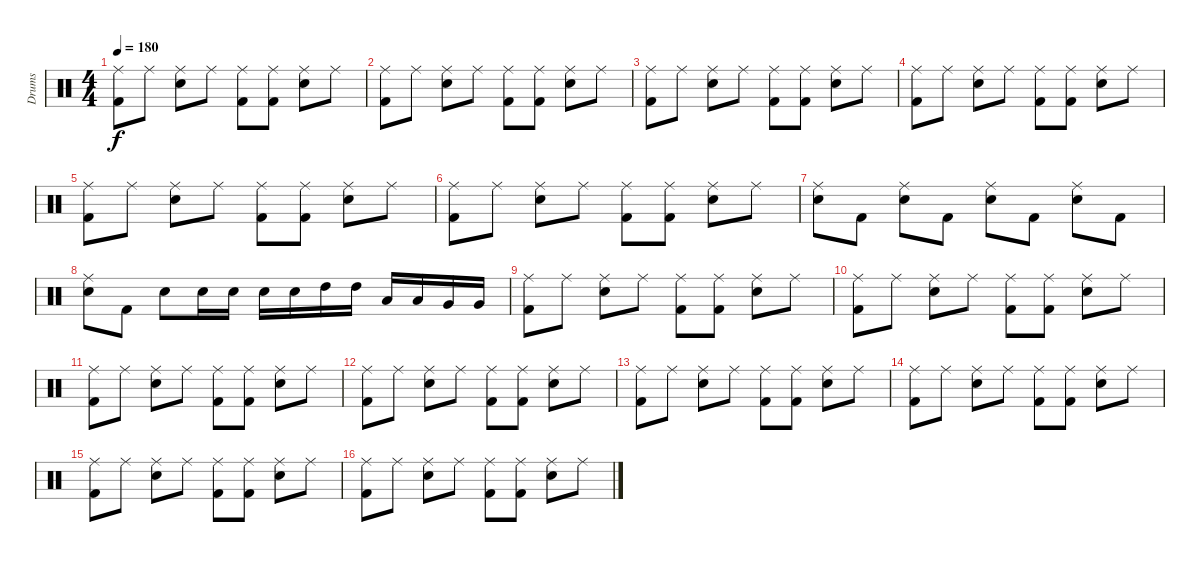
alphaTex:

\track ("Drums" "Drums") {instrument percussion}
\staff {score}
\articulation defaults
\ts (4 4)
\tempo 180
\clef neutral
\ks c
("Ride (middle)" "Kick (hit) 2").8{dy f} "Ride (middle)".8 ("Ride (middle)" "Electric Snare (hit)").8 "Ride (middle)".8 ("Ride (middle)" "Kick (hit) 2").8 ("Ride (middle)" "Kick (hit) 2").8 ("Ride (middle)" "Electric Snare (hit)").8 "Ride (middle)".8 |
("Ride (middle)" "Kick (hit) 2").8 "Ride (middle)".8 ("Ride (middle)" "Electric Snare (hit)").8 "Ride (middle)".8 ("Ride (middle)" "Kick (hit) 2").8 ("Ride (middle)" "Kick (hit) 2").8 ("Ride (middle)" "Electric Snare (hit)").8 "Ride (middle)".8 |
("Ride (middle)" "Kick (hit) 2").8 "Ride (middle)".8 ("Ride (middle)" "Electric Snare (hit)").8 "Ride (middle)".8 ("Ride (middle)" "Kick (hit) 2").8 ("Ride (middle)" "Kick (hit) 2").8 ("Ride (middle)" "Electric Snare (hit)").8 "Ride (middle)".8 |
("Ride (middle)" "Kick (hit) 2").8 "Ride (middle)".8 ("Ride (middle)" "Electric Snare (hit)").8 "Ride (middle)".8 ("Ride (middle)" "Kick (hit) 2").8 ("Ride (middle)" "Kick (hit) 2").8 ("Ride (middle)" "Electric Snare (hit)").8 "Ride (middle)".8 |
("Ride (middle)" "Kick (hit) 2").8 "Ride (middle)".8 ("Ride (middle)" "Electric Snare (hit)").8 "Ride (middle)".8 ("Ride (middle)" "Kick (hit) 2").8 ("Ride (middle)" "Kick (hit) 2").8 ("Ride (middle)" "Electric Snare (hit)").8 "Ride (middle)".8 |
("Ride (middle)" "Kick (hit) 2").8 "Ride (middle)".8 ("Ride (middle)" "Electric Snare (hit)").8 "Ride (middle)".8 ("Ride (middle)" "Kick (hit) 2").8 ("Ride (middle)" "Kick (hit) 2").8 ("Ride (middle)" "Electric Snare (hit)").8 "Ride (middle)".8 |
("Ride (middle)" "Electric Snare (hit)").8 "Kick (hit) 2".8 ("Ride (middle)" "Electric Snare (hit)").8 "Kick (hit) 2".8 ("Ride (middle)" "Electric Snare (hit)").8 "Kick (hit) 2".8 ("Ride (middle)" "Electric Snare (hit)").8 "Kick (hit) 2".8 |
("Ride (middle)" "Electric Snare (hit)").8 "Kick (hit) 2".8 "Electric Snare (hit)".8 "Electric Snare (hit)".16 "Electric Snare (hit)".16 "Electric Snare (hit)".16 "Electric Snare (hit)".16 "High Tom (hit)".16 "High Tom (hit)".16 "Low Tom (hit)".16 "Low Tom (hit)".16 "Very Low Tom (hit)".16 "Very Low Tom (hit)".16 |
("Ride (middle)" "Kick (hit) 2").8 "Ride (middle)".8 ("Ride (middle)" "Electric Snare (hit)").8 "Ride (middle)".8 ("Ride (middle)" "Kick (hit) 2").8 ("Ride (middle)" "Kick (hit) 2").8 ("Ride (middle)" "Electric Snare (hit)").8 "Ride (middle)".8 |
("Ride (middle)" "Kick (hit) 2").8 "Ride (middle)".8 ("Ride (middle)" "Electric Snare (hit)").8 "Ride (middle)".8 ("Ride (middle)" "Kick (hit) 2").8 ("Ride (middle)" "Kick (hit) 2").8 ("Ride (middle)" "Electric Snare (hit)").8 "Ride (middle)".8 |
("Ride (middle)" "Kick (hit) 2").8 "Ride (middle)".8 ("Ride (middle)" "Electric Snare (hit)").8 "Ride (middle)".8 ("Ride (middle)" "Kick (hit) 2").8 ("Ride (middle)" "Kick (hit) 2").8 ("Ride (middle)" "Electric Snare (hit)").8 "Ride (middle)".8 |
("Ride (middle)" "Kick (hit) 2").8 "Ride (middle)".8 ("Ride (middle)" "Electric Snare (hit)").8 "Ride (middle)".8 ("Ride (middle)" "Kick (hit) 2").8 ("Ride (middle)" "Kick (hit) 2").8 ("Ride (middle)" "Electric Snare (hit)").8 "Ride (middle)".8 |
("Ride (middle)" "Kick (hit) 2").8 "Ride (middle)".8 ("Ride (middle)" "Electric Snare (hit)").8 "Ride (middle)".8 ("Ride (middle)" "Kick (hit) 2").8 ("Ride (middle)" "Kick (hit) 2").8 ("Ride (middle)" "Electric Snare (hit)").8 "Ride (middle)".8 |
("Ride (middle)" "Kick (hit) 2").8 "Ride (middle)".8 ("Ride (middle)" "Electric Snare (hit)").8 "Ride (middle)".8 ("Ride (middle)" "Kick (hit) 2").8 ("Ride (middle)" "Kick (hit) 2").8 ("Ride (middle)" "Electric Snare (hit)").8 "Ride (middle)".8 |
("Ride (middle)" "Kick (hit) 2").8 "Ride (middle)".8 ("Ride (middle)" "Electric Snare (hit)").8 "Ride (middle)".8 ("Ride (middle)" "Kick (hit) 2").8 ("Ride (middle)" "Kick (hit) 2").8 ("Ride (middle)" "Electric Snare (hit)").8 "Ride (middle)".8 |
("Ride (middle)" "Kick (hit) 2").8 "Ride (middle)".8 ("Ride (middle)" "Electric Snare (hit)").8 "Ride (middle)".8 ("Ride (middle)" "Kick (hit) 2").8 ("Ride (middle)" "Kick (hit) 2").8 ("Ride (middle)" "Electric Snare (hit)").8 "Ride (middle)".8
